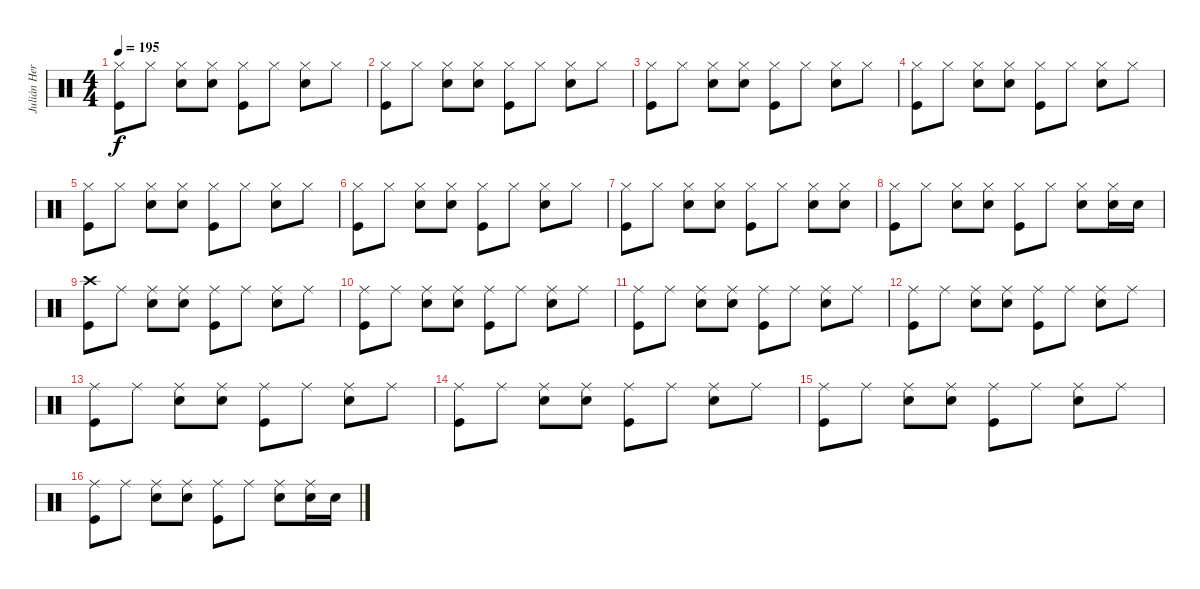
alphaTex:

\track ("Julián Hernandez" "Julián Her") {instrument percussion}
\staff {score}
\articulation defaults
\ts (4 4)
\tempo 195
\clef neutral
\ks c
("Hi-Hat (closed)" "Kick (hit)").8{dy f} "Hi-Hat (closed)".8 ("Hi-Hat (closed)" "Electric Snare (hit)").8 ("Hi-Hat (closed)" "Electric Snare (hit)").8 ("Hi-Hat (closed)" "Kick (hit)").8 "Hi-Hat (closed)".8 ("Hi-Hat (closed)" "Electric Snare (hit)").8 "Hi-Hat (closed)".8 |
("Hi-Hat (closed)" "Kick (hit)").8 "Hi-Hat (closed)".8 ("Hi-Hat (closed)" "Electric Snare (hit)").8 ("Hi-Hat (closed)" "Electric Snare (hit)").8 ("Hi-Hat (closed)" "Kick (hit)").8 "Hi-Hat (closed)".8 ("Hi-Hat (closed)" "Electric Snare (hit)").8 "Hi-Hat (closed)".8 |
("Hi-Hat (closed)" "Kick (hit)").8 "Hi-Hat (closed)".8 ("Hi-Hat (closed)" "Electric Snare (hit)").8 ("Hi-Hat (closed)" "Electric Snare (hit)").8 ("Hi-Hat (closed)" "Kick (hit)").8 "Hi-Hat (closed)".8 ("Hi-Hat (closed)" "Electric Snare (hit)").8 "Hi-Hat (closed)".8 |
("Hi-Hat (closed)" "Kick (hit)").8 "Hi-Hat (closed)".8 ("Hi-Hat (closed)" "Electric Snare (hit)").8 ("Hi-Hat (closed)" "Electric Snare (hit)").8 ("Hi-Hat (closed)" "Kick (hit)").8 "Hi-Hat (closed)".8 ("Hi-Hat (closed)" "Electric Snare (hit)").8 "Hi-Hat (closed)".8 |
("Hi-Hat (closed)" "Kick (hit)").8 "Hi-Hat (closed)".8 ("Hi-Hat (closed)" "Electric Snare (hit)").8 ("Hi-Hat (closed)" "Electric Snare (hit)").8 ("Hi-Hat (closed)" "Kick (hit)").8 "Hi-Hat (closed)".8 ("Hi-Hat (closed)" "Electric Snare (hit)").8 "Hi-Hat (closed)".8 |
("Hi-Hat (closed)" "Kick (hit)").8 "Hi-Hat (closed)".8 ("Hi-Hat (closed)" "Electric Snare (hit)").8 ("Hi-Hat (closed)" "Electric Snare (hit)").8 ("Hi-Hat (closed)" "Kick (hit)").8 "Hi-Hat (closed)".8 ("Hi-Hat (closed)" "Electric Snare (hit)").8 "Hi-Hat (closed)".8 |
("Hi-Hat (closed)" "Kick (hit)").8 "Hi-Hat (closed)".8 ("Hi-Hat (closed)" "Electric Snare (hit)").8 ("Hi-Hat (closed)" "Electric Snare (hit)").8 ("Hi-Hat (closed)" "Kick (hit)").8 "Hi-Hat (closed)".8 ("Hi-Hat (closed)" "Electric Snare (hit)").8 ("Hi-Hat (closed)" "Electric Snare (hit)").8 |
("Hi-Hat (closed)" "Kick (hit)").8 "Hi-Hat (closed)".8 ("Hi-Hat (closed)" "Electric Snare (hit)").8 ("Hi-Hat (closed)" "Electric Snare (hit)").8 ("Hi-Hat (closed)" "Kick (hit)").8 "Hi-Hat (closed)".8 ("Hi-Hat (closed)" "Electric Snare (hit)").8 ("Hi-Hat (closed)" "Electric Snare (hit)").16 "Electric Snare (hit)".16 |
("Crash high (hit)" "Kick (hit)").8 "Ride (middle)".8 ("Ride (middle)" "Electric Snare (hit)").8 ("Ride (middle)" "Electric Snare (hit)").8 ("Ride (middle)" "Kick (hit)").8 "Ride (middle)".8 ("Ride (middle)" "Electric Snare (hit)").8 "Ride (middle)".8 |
("Ride (middle)" "Kick (hit)").8 "Ride (middle)".8 ("Ride (middle)" "Electric Snare (hit)").8 ("Ride (middle)" "Electric Snare (hit)").8 ("Ride (middle)" "Kick (hit)").8 "Ride (middle)".8 ("Ride (middle)" "Electric Snare (hit)").8 "Ride (middle)".8 |
("Ride (middle)" "Kick (hit)").8 "Ride (middle)".8 ("Ride (middle)" "Electric Snare (hit)").8 ("Ride (middle)" "Electric Snare (hit)").8 ("Ride (middle)" "Kick (hit)").8 "Ride (middle)".8 ("Ride (middle)" "Electric Snare (hit)").8 "Ride (middle)".8 |
("Ride (middle)" "Kick (hit)").8 "Ride (middle)".8 ("Ride (middle)" "Electric Snare (hit)").8 ("Ride (middle)" "Electric Snare (hit)").8 ("Ride (middle)" "Kick (hit)").8 "Ride (middle)".8 ("Ride (middle)" "Electric Snare (hit)").8 "Ride (middle)".8 |
("Ride (middle)" "Kick (hit)").8 "Ride (middle)".8 ("Ride (middle)" "Electric Snare (hit)").8 ("Ride (middle)" "Electric Snare (hit)").8 ("Ride (middle)" "Kick (hit)").8 "Ride (middle)".8 ("Ride (middle)" "Electric Snare (hit)").8 "Ride (middle)".8 |
("Ride (middle)" "Kick (hit)").8 "Ride (middle)".8 ("Ride (middle)" "Electric Snare (hit)").8 ("Ride (middle)" "Electric Snare (hit)").8 ("Ride (middle)" "Kick (hit)").8 "Ride (middle)".8 ("Ride (middle)" "Electric Snare (hit)").8 "Ride (middle)".8 |
("Ride (middle)" "Kick (hit)").8 "Ride (middle)".8 ("Ride (middle)" "Electric Snare (hit)").8 ("Ride (middle)" "Electric Snare (hit)").8 ("Ride (middle)" "Kick (hit)").8 "Ride (middle)".8 ("Ride (middle)" "Electric Snare (hit)").8 "Ride (middle)".8 |
("Ride (middle)" "Kick (hit)").8 "Ride (middle)".8 ("Ride (middle)" "Electric Snare (hit)").8 ("Ride (middle)" "Electric Snare (hit)").8 ("Ride (middle)" "Kick (hit)").8 "Ride (middle)".8 ("Ride (middle)" "Electric Snare (hit)").8 ("Ride (middle)" "Electric Snare (hit)").16 "Electric Snare (hit)".16
